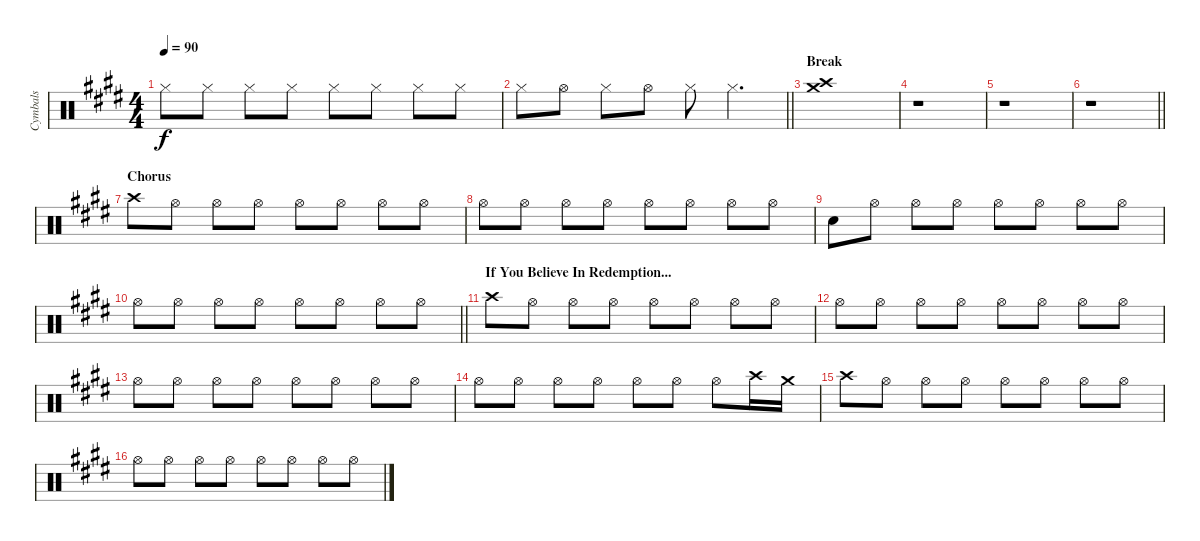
\track ("Cymbals" "Cymbals") {instrument percussion}
\staff {score}
\articulation defaults
\ts (4 4)
\tempo 90
\clef neutral
\ks e "Hi-Hat (closed)".8{dy f} "Hi-Hat (closed)".8 "Hi-Hat (closed)".8 "Hi-Hat (closed)".8 "Hi-Hat (closed)".8 "Hi-Hat (closed)".8 "Hi-Hat (closed)".8 "Hi-Hat (closed)".8
|
\barLineRight lightlight "Hi-Hat (closed)".8 "Hi-Hat (open)".8 "Hi-Hat (closed)".8 "Hi-Hat (open)".8 "Hi-Hat (closed)".8 "Hi-Hat (closed)".4{d}
|
\section ("" "Break")
("Crash medium (hit)" "Crash high (hit)").1 |
r.1 |
r.1 |
\barLineRight lightlight
r.1 |
\section ("" "Chorus")
"Crash high (hit)".8 "Hi-Hat (open)".8 "Hi-Hat (open)".8 "Hi-Hat (open)".8 "Hi-Hat (open)".8 "Hi-Hat (open)".8 "Hi-Hat (open)".8 "Hi-Hat (open)".8 |
"Hi-Hat (open)".8 "Hi-Hat (open)".8 "Hi-Hat (open)".8 "Hi-Hat (open)".8 "Hi-Hat (open)".8 "Hi-Hat (open)".8 "Hi-Hat (open)".8 "Hi-Hat (open)".8 |
"Hand Clap (hit)".8 "Hi-Hat (open)".8 "Hi-Hat (open)".8 "Hi-Hat (open)".8 "Hi-Hat (open)".8 "Hi-Hat (open)".8 "Hi-Hat (open)".8 "Hi-Hat (open)".8 |
\barLineRight lightlight "Hi-Hat (open)".8 "Hi-Hat (open)".8 "Hi-Hat (open)".8 "Hi-Hat (open)".8 "Hi-Hat (open)".8 "Hi-Hat (open)".8 "Hi-Hat (open)".8 "Hi-Hat (open)".8
|
\section ("" "If You Believe In Redemption...")
"Crash high (hit)".8 "Hi-Hat (open)".8 "Hi-Hat (open)".8 "Hi-Hat (open)".8 "Hi-Hat (open)".8 "Hi-Hat (open)".8 "Hi-Hat (open)".8 "Hi-Hat (open)".8 |
"Hi-Hat (open)".8 "Hi-Hat (open)".8 "Hi-Hat (open)".8 "Hi-Hat (open)".8 "Hi-Hat (open)".8 "Hi-Hat (open)".8 "Hi-Hat (open)".8 "Hi-Hat (open)".8 |
"Hi-Hat (open)".8 "Hi-Hat (open)".8 "Hi-Hat (open)".8 "Hi-Hat (open)".8 "Hi-Hat (open)".8 "Hi-Hat (open)".8 "Hi-Hat (open)".8 "Hi-Hat (open)".8 |
"Hi-Hat (open)".8 "Hi-Hat (open)".8 "Hi-Hat (open)".8 "Hi-Hat (open)".8 "Hi-Hat (open)".8 "Hi-Hat (open)".8 "Hi-Hat (open)".8 "Crash high (hit)".16 "Crash medium (hit)".16 |
"Crash high (hit)".8 "Hi-Hat (open)".8 "Hi-Hat (open)".8 "Hi-Hat (open)".8 "Hi-Hat (open)".8 "Hi-Hat (open)".8 "Hi-Hat (open)".8 "Hi-Hat (open)".8 |
"Hi-Hat (open)".8 "Hi-Hat (open)".8 "Hi-Hat (open)".8 "Hi-Hat (open)".8 "Hi-Hat (open)".8 "Hi-Hat (open)".8 "Hi-Hat (open)".8 "Hi-Hat (open)".8
